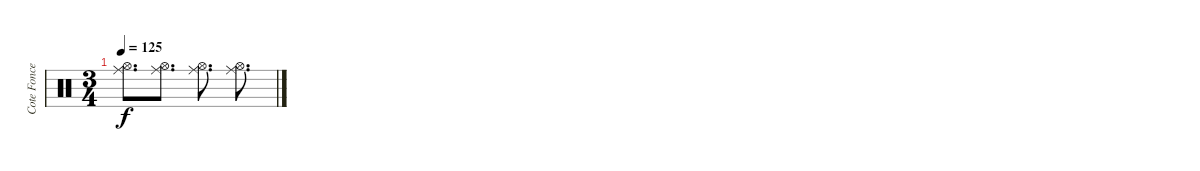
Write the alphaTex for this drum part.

\track ("Cote Foncea" "Cote Fonce") {instrument percussion}
\staff {score}
\articulation defaults
\ts (3 4)
\tempo 125
\clef neutral
\ks c
("Ride (middle)" "Hi-Hat (open)").8{d dy f} ("Ride (middle)" "Hi-Hat (open)").8{d} ("Ride (middle)" "Hi-Hat (open)").8{d} ("Ride (middle)" "Hi-Hat (open)").8{d}
